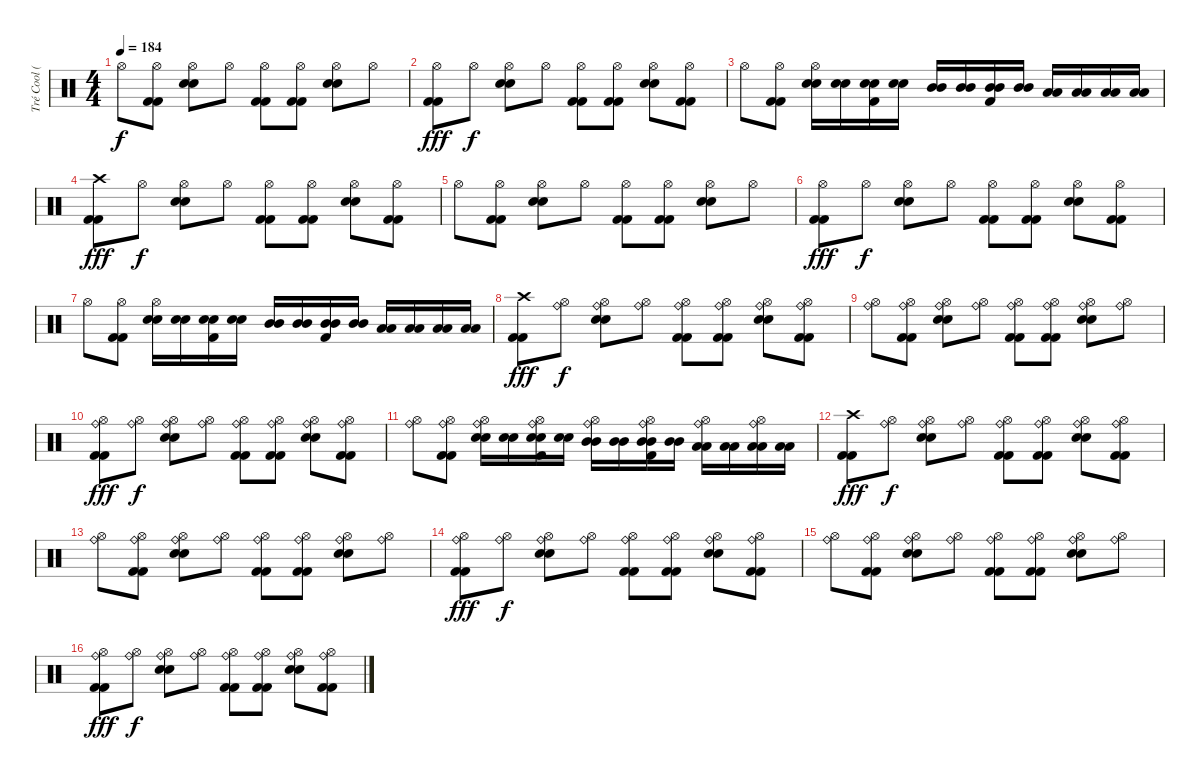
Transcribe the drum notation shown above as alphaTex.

\track ("Tré Cool (Drums)" "Tré Cool (") {instrument percussion}
\staff {score}
\articulation defaults
\ts (4 4)
\tempo 184
\clef neutral
\ks c "Hi-Hat (open)".8{dy f}
("Kick (hit) 2" "Kick (hit) 2" "Hi-Hat (open)").8 ("Electric Snare (hit)" "Electric Snare (hit)" "Hi-Hat (open)").8 "Hi-Hat (open)".8 ("Kick (hit) 2" "Kick (hit) 2" "Hi-Hat (open)").8 ("Kick (hit) 2" "Kick (hit) 2" "Hi-Hat (open)").8 ("Electric Snare (hit)" "Electric Snare (hit)" "Hi-Hat (open)").8 "Hi-Hat (open)".8 |
("Kick (hit) 2" "Kick (hit) 2" "Hi-Hat (open)").8{dy fff} "Hi-Hat (open)".8{dy f} ("Electric Snare (hit)" "Electric Snare (hit)" "Hi-Hat (open)").8 "Hi-Hat (open)".8 ("Kick (hit) 2" "Kick (hit) 2" "Hi-Hat (open)").8 ("Kick (hit) 2" "Kick (hit) 2" "Hi-Hat (open)").8 ("Electric Snare (hit)" "Electric Snare (hit)" "Hi-Hat (open)").8 ("Kick (hit) 2" "Kick (hit) 2" "Hi-Hat (open)").8 |
"Hi-Hat (open)".8 ("Kick (hit) 2" "Kick (hit) 2" "Hi-Hat (open)").8 ("Electric Snare (hit)" "Electric Snare (hit)" "Hi-Hat (open)").16 ("Electric Snare (hit)" "Electric Snare (hit)").16 ("Electric Snare (hit)" "Electric Snare (hit)" "Kick (hit) 2").16 ("Electric Snare (hit)" "Electric Snare (hit)").16 ("Mid Tom (hit)" "Mid Tom (hit)").16 ("Mid Tom (hit)" "Mid Tom (hit)").16 ("Mid Tom (hit)" "Mid Tom (hit)" "Kick (hit) 2").16 ("Mid Tom (hit)" "Mid Tom (hit)").16 ("Low Tom (hit)" "Low Tom (hit)").16 ("Low Tom (hit)" "Low Tom (hit)").16 ("Low Tom (hit)" "Low Tom (hit)").16 ("Low Tom (hit)" "Low Tom (hit)").16 |
("Kick (hit) 2" "Kick (hit) 2" "Crash high (hit)").8{dy fff} "Hi-Hat (open)".8{dy f} ("Electric Snare (hit)" "Electric Snare (hit)" "Hi-Hat (open)").8 "Hi-Hat (open)".8 ("Kick (hit) 2" "Kick (hit) 2" "Hi-Hat (open)").8 ("Kick (hit) 2" "Kick (hit) 2" "Hi-Hat (open)").8 ("Electric Snare (hit)" "Electric Snare (hit)" "Hi-Hat (open)").8 ("Kick (hit) 2" "Kick (hit) 2" "Hi-Hat (open)").8 |
"Hi-Hat (open)".8 ("Kick (hit) 2" "Kick (hit) 2" "Hi-Hat (open)").8 ("Electric Snare (hit)" "Electric Snare (hit)" "Hi-Hat (open)").8 "Hi-Hat (open)".8 ("Kick (hit) 2" "Kick (hit) 2" "Hi-Hat (open)").8 ("Kick (hit) 2" "Kick (hit) 2" "Hi-Hat (open)").8 ("Electric Snare (hit)" "Electric Snare (hit)" "Hi-Hat (open)").8 "Hi-Hat (open)".8 |
("Kick (hit) 2" "Kick (hit) 2" "Hi-Hat (open)").8{dy fff} "Hi-Hat (open)".8{dy f} ("Electric Snare (hit)" "Electric Snare (hit)" "Hi-Hat (open)").8 "Hi-Hat (open)".8 ("Kick (hit) 2" "Kick (hit) 2" "Hi-Hat (open)").8 ("Kick (hit) 2" "Kick (hit) 2" "Hi-Hat (open)").8 ("Electric Snare (hit)" "Electric Snare (hit)" "Hi-Hat (open)").8 ("Kick (hit) 2" "Kick (hit) 2" "Hi-Hat (open)").8 |
"Hi-Hat (open)".8 ("Kick (hit) 2" "Kick (hit) 2" "Hi-Hat (open)").8 ("Electric Snare (hit)" "Electric Snare (hit)" "Hi-Hat (open)").16 ("Electric Snare (hit)" "Electric Snare (hit)").16 ("Electric Snare (hit)" "Electric Snare (hit)" "Kick (hit) 2").16 ("Electric Snare (hit)" "Electric Snare (hit)").16 ("Mid Tom (hit)" "Mid Tom (hit)").16 ("Mid Tom (hit)" "Mid Tom (hit)").16 ("Mid Tom (hit)" "Mid Tom (hit)" "Kick (hit) 2").16 ("Mid Tom (hit)" "Mid Tom (hit)").16 ("Low Tom (hit)" "Low Tom (hit)").16 ("Low Tom (hit)" "Low Tom (hit)").16 ("Low Tom (hit)" "Low Tom (hit)").16 ("Low Tom (hit)" "Low Tom (hit)").16 |
("Kick (hit) 2" "Kick (hit) 2" "Crash high (hit)").8{dy fff} ("Ride (bell)" "Hi-Hat (open)").8{dy f} ("Electric Snare (hit)" "Electric Snare (hit)" "Ride (bell)" "Hi-Hat (open)").8 ("Ride (bell)" "Hi-Hat (open)").8 ("Kick (hit) 2" "Kick (hit) 2" "Ride (bell)" "Hi-Hat (open)").8 ("Kick (hit) 2" "Kick (hit) 2" "Ride (bell)" "Hi-Hat (open)").8 ("Electric Snare (hit)" "Electric Snare (hit)" "Ride (bell)" "Hi-Hat (open)").8 ("Kick (hit) 2" "Kick (hit) 2" "Ride (bell)" "Hi-Hat (open)").8 |
("Ride (bell)" "Hi-Hat (open)").8 ("Kick (hit) 2" "Kick (hit) 2" "Ride (bell)" "Hi-Hat (open)").8 ("Electric Snare (hit)" "Electric Snare (hit)" "Ride (bell)" "Hi-Hat (open)").8 ("Ride (bell)" "Hi-Hat (open)").8 ("Kick (hit) 2" "Kick (hit) 2" "Ride (bell)" "Hi-Hat (open)").8 ("Kick (hit) 2" "Kick (hit) 2" "Ride (bell)" "Hi-Hat (open)").8 ("Electric Snare (hit)" "Electric Snare (hit)" "Ride (bell)" "Hi-Hat (open)").8 ("Ride (bell)" "Hi-Hat (open)").8 |
("Kick (hit) 2" "Kick (hit) 2" "Ride (bell)" "Hi-Hat (open)").8{dy fff} ("Ride (bell)" "Hi-Hat (open)").8{dy f} ("Electric Snare (hit)" "Electric Snare (hit)" "Ride (bell)" "Hi-Hat (open)").8 ("Ride (bell)" "Hi-Hat (open)").8 ("Kick (hit) 2" "Kick (hit) 2" "Ride (bell)" "Hi-Hat (open)").8 ("Kick (hit) 2" "Kick (hit) 2" "Ride (bell)" "Hi-Hat (open)").8 ("Electric Snare (hit)" "Electric Snare (hit)" "Ride (bell)" "Hi-Hat (open)").8 ("Kick (hit) 2" "Kick (hit) 2" "Ride (bell)" "Hi-Hat (open)").8 |
("Ride (bell)" "Hi-Hat (open)").8 ("Kick (hit) 2" "Kick (hit) 2" "Ride (bell)" "Hi-Hat (open)").8 ("Electric Snare (hit)" "Electric Snare (hit)" "Ride (bell)" "Hi-Hat (open)").16 ("Electric Snare (hit)" "Electric Snare (hit)").16 ("Electric Snare (hit)" "Electric Snare (hit)" "Kick (hit) 2" "Ride (bell)" "Hi-Hat (open)").16 ("Electric Snare (hit)" "Electric Snare (hit)").16 ("Mid Tom (hit)" "Mid Tom (hit)" "Ride (bell)" "Hi-Hat (open)").16 ("Mid Tom (hit)" "Mid Tom (hit)").16 ("Mid Tom (hit)" "Mid Tom (hit)" "Kick (hit) 2" "Ride (bell)" "Hi-Hat (open)").16 ("Mid Tom (hit)" "Mid Tom (hit)").16 ("Low Tom (hit)" "Low Tom (hit)" "Ride (bell)" "Hi-Hat (open)").16 ("Low Tom (hit)" "Low Tom (hit)").16 ("Low Tom (hit)" "Low Tom (hit)" "Ride (bell)" "Hi-Hat (open)").16 ("Low Tom (hit)" "Low Tom (hit)").16 |
("Kick (hit) 2" "Kick (hit) 2" "Crash high (hit)").8{dy fff} ("Ride (bell)" "Hi-Hat (open)").8{dy f} ("Electric Snare (hit)" "Electric Snare (hit)" "Ride (bell)" "Hi-Hat (open)").8 ("Ride (bell)" "Hi-Hat (open)").8 ("Kick (hit) 2" "Kick (hit) 2" "Ride (bell)" "Hi-Hat (open)").8 ("Kick (hit) 2" "Kick (hit) 2" "Ride (bell)" "Hi-Hat (open)").8 ("Electric Snare (hit)" "Electric Snare (hit)" "Ride (bell)" "Hi-Hat (open)").8 ("Kick (hit) 2" "Kick (hit) 2" "Ride (bell)" "Hi-Hat (open)").8 |
("Ride (bell)" "Hi-Hat (open)").8 ("Kick (hit) 2" "Kick (hit) 2" "Ride (bell)" "Hi-Hat (open)").8 ("Electric Snare (hit)" "Electric Snare (hit)" "Ride (bell)" "Hi-Hat (open)").8 ("Ride (bell)" "Hi-Hat (open)").8 ("Kick (hit) 2" "Kick (hit) 2" "Ride (bell)" "Hi-Hat (open)").8 ("Kick (hit) 2" "Kick (hit) 2" "Ride (bell)" "Hi-Hat (open)").8 ("Electric Snare (hit)" "Electric Snare (hit)" "Ride (bell)" "Hi-Hat (open)").8 ("Ride (bell)" "Hi-Hat (open)").8 |
("Kick (hit) 2" "Kick (hit) 2" "Ride (bell)" "Hi-Hat (open)").8{dy fff} ("Ride (bell)" "Hi-Hat (open)").8{dy f} ("Electric Snare (hit)" "Electric Snare (hit)" "Ride (bell)" "Hi-Hat (open)").8 ("Ride (bell)" "Hi-Hat (open)").8 ("Kick (hit) 2" "Kick (hit) 2" "Ride (bell)" "Hi-Hat (open)").8 ("Kick (hit) 2" "Kick (hit) 2" "Ride (bell)" "Hi-Hat (open)").8 ("Electric Snare (hit)" "Electric Snare (hit)" "Ride (bell)" "Hi-Hat (open)").8 ("Kick (hit) 2" "Kick (hit) 2" "Ride (bell)" "Hi-Hat (open)").8 |
("Ride (bell)" "Hi-Hat (open)").8 ("Kick (hit) 2" "Kick (hit) 2" "Ride (bell)" "Hi-Hat (open)").8 ("Electric Snare (hit)" "Electric Snare (hit)" "Ride (bell)" "Hi-Hat (open)").8 ("Ride (bell)" "Hi-Hat (open)").8 ("Kick (hit) 2" "Kick (hit) 2" "Ride (bell)" "Hi-Hat (open)").8 ("Kick (hit) 2" "Kick (hit) 2" "Ride (bell)" "Hi-Hat (open)").8 ("Electric Snare (hit)" "Electric Snare (hit)" "Ride (bell)" "Hi-Hat (open)").8 ("Ride (bell)" "Hi-Hat (open)").8 |
("Kick (hit) 2" "Kick (hit) 2" "Ride (bell)" "Hi-Hat (open)").8{dy fff} ("Ride (bell)" "Hi-Hat (open)").8{dy f} ("Electric Snare (hit)" "Electric Snare (hit)" "Ride (bell)" "Hi-Hat (open)").8 ("Ride (bell)" "Hi-Hat (open)").8 ("Kick (hit) 2" "Kick (hit) 2" "Ride (bell)" "Hi-Hat (open)").8 ("Kick (hit) 2" "Kick (hit) 2" "Ride (bell)" "Hi-Hat (open)").8 ("Electric Snare (hit)" "Electric Snare (hit)" "Ride (bell)" "Hi-Hat (open)").8 ("Kick (hit) 2" "Kick (hit) 2" "Ride (bell)" "Hi-Hat (open)").8
